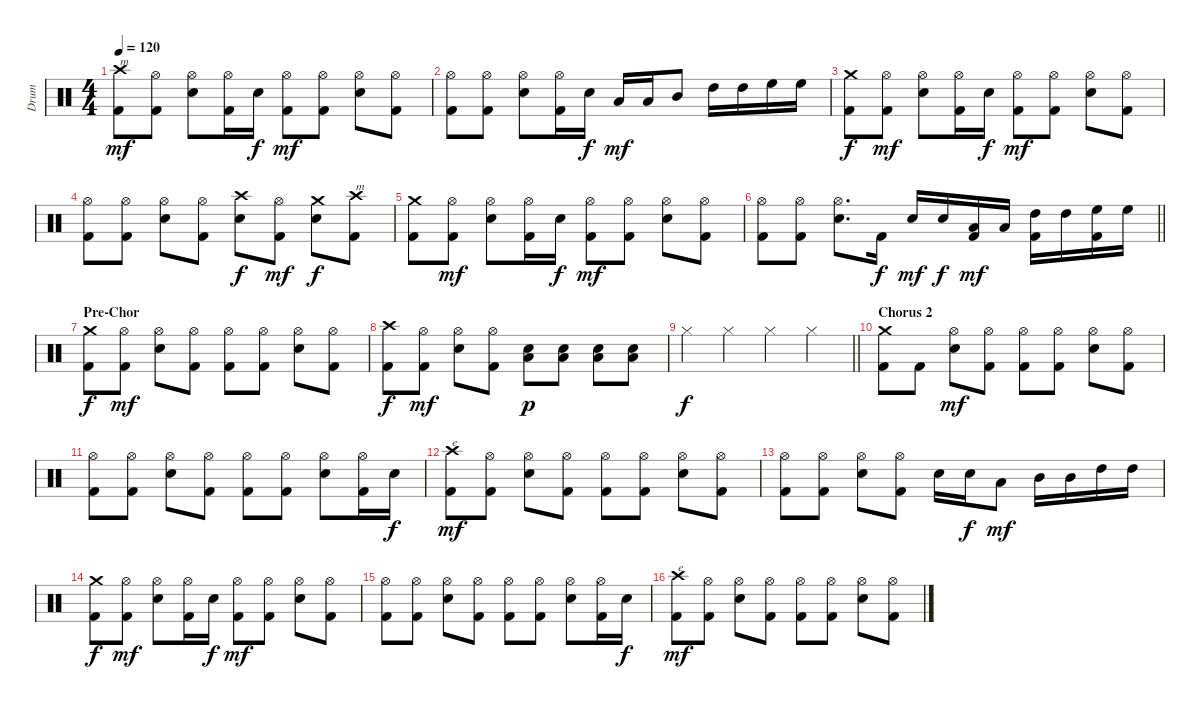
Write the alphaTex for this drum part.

\track ("Drum" "Drum") {instrument percussion}
\staff {score}
\articulation defaults
\ts (4 4)
\tempo 120
\clef neutral
\ks c
("Crash high (hit)" "Kick (hit) 2").8{txt "m" dy mf} ("Hi-Hat (open)" "Kick (hit) 2").8 ("Hi-Hat (open)" "Snare (hit) 2").8 ("Hi-Hat (open)" "Kick (hit) 2").16 "Snare (hit) 2".16{dy f} ("Hi-Hat (open)" "Kick (hit) 2").8{dy mf} ("Hi-Hat (open)" "Kick (hit) 2").8 ("Hi-Hat (open)" "Snare (hit) 2").8 ("Hi-Hat (open)" "Kick (hit) 2").8 |
("Hi-Hat (open)" "Kick (hit) 2").8 ("Hi-Hat (open)" "Kick (hit) 2").8 ("Hi-Hat (open)" "Snare (hit) 2").8 ("Hi-Hat (open)" "Kick (hit) 2").16 "Snare (hit) 2".16{dy f} "Low Tom (hit)".16{dy mf} "Low Tom (hit)".16 "Mid Tom (hit)".8 "High Tom (hit)".16 "High Tom (hit)".16 "High Floor Tom (hit)".16 "High Floor Tom (hit)".16 |
("Crash medium (hit)" "Kick (hit) 2").8{dy f} ("Hi-Hat (open)" "Kick (hit) 2").8{dy mf} ("Hi-Hat (open)" "Snare (hit) 2").8 ("Hi-Hat (open)" "Kick (hit) 2").16 "Snare (hit) 2".16{dy f} ("Hi-Hat (open)" "Kick (hit) 2").8{dy mf} ("Hi-Hat (open)" "Kick (hit) 2").8 ("Hi-Hat (open)" "Snare (hit) 2").8 ("Hi-Hat (open)" "Kick (hit) 2").8 |
("Hi-Hat (open)" "Kick (hit) 2").8 ("Hi-Hat (open)" "Kick (hit) 2").8 ("Hi-Hat (open)" "Snare (hit) 2").8 ("Hi-Hat (open)" "Kick (hit) 2").8 ("Crash high (hit)" "Snare (hit) 2").8{dy f} ("Hi-Hat (open)" "Kick (hit) 2").8{dy mf} ("Crash medium (hit)" "Snare (hit) 2").8{dy f} ("Crash high (hit)" "Kick (hit) 2").8{txt "m"} |
("Crash medium (hit)" "Kick (hit) 2").8 ("Hi-Hat (open)" "Kick (hit) 2").8{dy mf} ("Hi-Hat (open)" "Snare (hit) 2").8 ("Hi-Hat (open)" "Kick (hit) 2").16 "Snare (hit) 2".16{dy f} ("Hi-Hat (open)" "Kick (hit) 2").8{dy mf} ("Hi-Hat (open)" "Kick (hit) 2").8 ("Hi-Hat (open)" "Snare (hit) 2").8 ("Hi-Hat (open)" "Kick (hit) 2").8 |
\barLineRight lightlight
("Hi-Hat (open)" "Kick (hit) 2").8 ("Hi-Hat (open)" "Kick (hit) 2").8 ("Hi-Hat (open)" "Snare (hit) 2").8{d} "Kick (hit) 2".16{dy f} "Snare (hit) 2".16{dy mf} "Snare (hit) 2".16{dy f} ("Low Tom (hit)" "Kick (hit) 2").16{dy mf} "Low Tom (hit)".16 ("High Tom (hit)" "Kick (hit) 2").16 "High Tom (hit)".16 ("High Floor Tom (hit)" "Kick (hit) 2").16 "High Floor Tom (hit)".16 |
\section ("" "Pre-Chor")
("Crash medium (hit)" "Kick (hit) 2").8{dy f} ("Hi-Hat (open)" "Kick (hit) 2").8{dy mf} ("Hi-Hat (open)" "Snare (hit) 2").8 ("Hi-Hat (open)" "Kick (hit) 2").8 ("Hi-Hat (open)" "Kick (hit) 2").8 ("Hi-Hat (open)" "Kick (hit) 2").8 ("Hi-Hat (open)" "Snare (hit) 2").8 ("Hi-Hat (open)" "Kick (hit) 2").8 |
("Crash high (hit)" "Kick (hit) 2").8{dy f} ("Hi-Hat (open)" "Kick (hit) 2").8{dy mf} ("Hi-Hat (open)" "Snare (hit) 2").8 ("Hi-Hat (open)" "Kick (hit) 2").8 ("Low Floor Tom (hit)" "Snare (hit) 2").8{dy p} ("Low Floor Tom (hit)" "Snare (hit) 2").8 ("Low Floor Tom (hit)" "Snare (hit) 2").8 ("Low Floor Tom (hit)" "Snare (hit) 2").8 |
\barLineRight lightlight "Hi-Hat (closed)".4{dy f} "Hi-Hat (closed)".4 "Hi-Hat (closed)".4 "Hi-Hat (closed)".4
|
\section ("" "Chorus 2")
("Crash medium (hit)" "Kick (hit) 2").8 "Kick (hit) 2".8 ("Hi-Hat (open)" "Snare (hit) 2").8{dy mf} ("Hi-Hat (open)" "Kick (hit) 2").8 ("Hi-Hat (open)" "Kick (hit) 2").8 ("Hi-Hat (open)" "Kick (hit) 2").8 ("Hi-Hat (open)" "Snare (hit) 2").8 ("Hi-Hat (open)" "Kick (hit) 2").8 |
("Hi-Hat (open)" "Kick (hit) 2").8 ("Hi-Hat (open)" "Kick (hit) 2").8 ("Hi-Hat (open)" "Snare (hit) 2").8 ("Hi-Hat (open)" "Kick (hit) 2").8 ("Hi-Hat (open)" "Kick (hit) 2").8 ("Hi-Hat (open)" "Kick (hit) 2").8 ("Hi-Hat (open)" "Snare (hit) 2").8 ("Hi-Hat (open)" "Kick (hit) 2").16 "Snare (hit) 2".16{dy f} |
("Crash high (hit)" "Kick (hit) 2").8{txt "e" dy mf} ("Hi-Hat (open)" "Kick (hit) 2").8 ("Hi-Hat (open)" "Snare (hit) 2").8 ("Hi-Hat (open)" "Kick (hit) 2").8 ("Hi-Hat (open)" "Kick (hit) 2").8 ("Hi-Hat (open)" "Kick (hit) 2").8 ("Hi-Hat (open)" "Snare (hit) 2").8 ("Hi-Hat (open)" "Kick (hit) 2").8 |
("Hi-Hat (open)" "Kick (hit) 2").8 ("Hi-Hat (open)" "Kick (hit) 2").8 ("Hi-Hat (open)" "Snare (hit) 2").8 ("Hi-Hat (open)" "Kick (hit) 2").8 "Snare (hit) 2".16 "Snare (hit) 2".16{dy f} "Low Tom (hit)".8{dy mf} "Mid Tom (hit)".16 "Mid Tom (hit)".16 "High Tom (hit)".16 "High Tom (hit)".16 |
("Crash medium (hit)" "Kick (hit) 2").8{dy f} ("Hi-Hat (open)" "Kick (hit) 2").8{dy mf} ("Hi-Hat (open)" "Snare (hit) 2").8 ("Hi-Hat (open)" "Kick (hit) 2").16 "Snare (hit) 2".16{dy f} ("Hi-Hat (open)" "Kick (hit) 2").8{dy mf} ("Hi-Hat (open)" "Kick (hit) 2").8 ("Hi-Hat (open)" "Snare (hit) 2").8 ("Hi-Hat (open)" "Kick (hit) 2").8 |
("Hi-Hat (open)" "Kick (hit) 2").8 ("Hi-Hat (open)" "Kick (hit) 2").8 ("Hi-Hat (open)" "Snare (hit) 2").8 ("Hi-Hat (open)" "Kick (hit) 2").8 ("Hi-Hat (open)" "Kick (hit) 2").8 ("Hi-Hat (open)" "Kick (hit) 2").8 ("Hi-Hat (open)" "Snare (hit) 2").8 ("Hi-Hat (open)" "Kick (hit) 2").16 "Snare (hit) 2".16{dy f} |
("Crash high (hit)" "Kick (hit) 2").8{txt "e" dy mf} ("Hi-Hat (open)" "Kick (hit) 2").8 ("Hi-Hat (open)" "Snare (hit) 2").8 ("Hi-Hat (open)" "Kick (hit) 2").8 ("Hi-Hat (open)" "Kick (hit) 2").8 ("Hi-Hat (open)" "Kick (hit) 2").8 ("Hi-Hat (open)" "Snare (hit) 2").8 ("Hi-Hat (open)" "Kick (hit) 2").8
